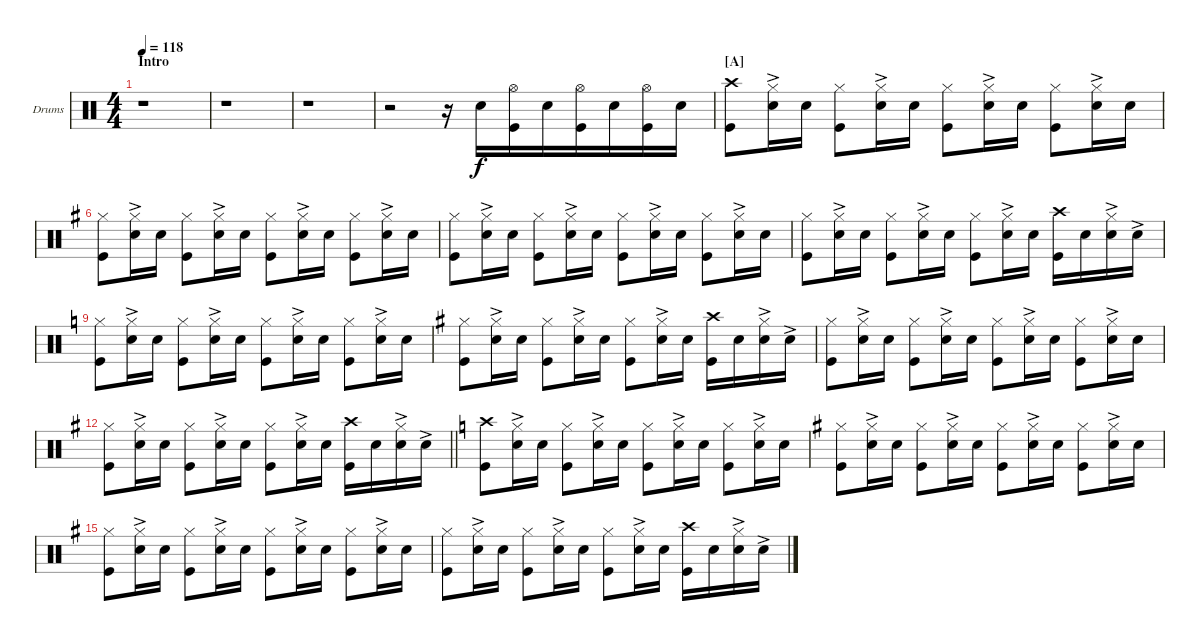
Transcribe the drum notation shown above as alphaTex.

\bracketExtendMode nobrackets
\firstSystemTrackNameOrientation horizontal
\otherSystemsTrackNameOrientation horizontal
\defaultBarNumberDisplay FirstOfSystem
\track ("Drumkit" "Drums") {instrument percussion}
\staff {score}
\articulation defaults
\ts (4 4)
\beaming (8 2 2 2 2)
\section ("" "Intro")
\tempo 118
\clef neutral
\scale
0.474178
\ks c
r.1{dy f} |
\scale
0.262911 r.1 |
\scale
0.262911 r.1 |
\scale
0.290155 r.2 r.16 "Snare (hit) 2".16 ("Kick (hit)" "Hi-Hat (open)").16{beam merge} "Snare (hit) 2".16{beam merge} ("Kick (hit)" "Hi-Hat (open)").16{beam merge} "Snare (hit) 2".16 ("Kick (hit)" "Hi-Hat (open)").16 "Snare (hit) 2".16 |
\section ("A" "")
\scale
0.489324
\scale
0.352332 ("Kick (hit)" "Crash high (hit)").8 ("Snare (hit) 2"{ac} "Hi-Hat (closed)").16 "Snare (hit) 2".16 ("Kick (hit)" "Hi-Hat (closed)").8 ("Snare (hit) 2"{ac} "Hi-Hat (closed)").16 "Snare (hit) 2".16 ("Kick (hit)" "Hi-Hat (closed)").8 ("Snare (hit) 2"{ac} "Hi-Hat (closed)").16 "Snare (hit) 2".16 ("Kick (hit)" "Hi-Hat (closed)").8 ("Snare (hit) 2"{ac} "Hi-Hat (closed)").16 "Snare (hit) 2".16 |
\scale
0.510053
\scale
0.357513
\ks g
("Kick (hit)" "Hi-Hat (closed)").8 ("Snare (hit) 2"{ac} "Hi-Hat (closed)").16 "Snare (hit) 2".16 ("Kick (hit)" "Hi-Hat (closed)").8 ("Snare (hit) 2"{ac} "Hi-Hat (closed)").16 "Snare (hit) 2".16 ("Kick (hit)" "Hi-Hat (closed)").8 ("Snare (hit) 2"{ac} "Hi-Hat (closed)").16 "Snare (hit) 2".16 ("Kick (hit)" "Hi-Hat (closed)").8 ("Snare (hit) 2"{ac} "Hi-Hat (closed)").16 "Snare (hit) 2".16 |
\scale
0.314607 ("Kick (hit)" "Hi-Hat (closed)").8 ("Snare (hit) 2"{ac} "Hi-Hat (closed)").16 "Snare (hit) 2".16 ("Kick (hit)" "Hi-Hat (closed)").8 ("Snare (hit) 2"{ac} "Hi-Hat (closed)").16 "Snare (hit) 2".16 ("Kick (hit)" "Hi-Hat (closed)").8 ("Snare (hit) 2"{ac} "Hi-Hat (closed)").16 "Snare (hit) 2".16 ("Kick (hit)" "Hi-Hat (closed)").8 ("Snare (hit) 2"{ac} "Hi-Hat (closed)").16 "Snare (hit) 2".16 |
\scale
0.314607 ("Kick (hit)" "Hi-Hat (closed)").8 ("Snare (hit) 2"{ac} "Hi-Hat (closed)").16 "Snare (hit) 2".16 ("Kick (hit)" "Hi-Hat (closed)").8 ("Snare (hit) 2"{ac} "Hi-Hat (closed)").16 "Snare (hit) 2".16 ("Kick (hit)" "Hi-Hat (closed)").8 ("Snare (hit) 2"{ac} "Hi-Hat (closed)").16 "Snare (hit) 2".16 ("Kick (hit)" "Crash high (hit)").16 "Snare (hit) 2".16 ("Snare (hit) 2"{ac} "Hi-Hat (closed)").16 "Snare (hit) 2"{ac}.16 |
\scale
0.370787
\ks c
("Kick (hit)" "Hi-Hat (closed)").8 ("Snare (hit) 2"{ac} "Hi-Hat (closed)").16 "Snare (hit) 2".16 ("Kick (hit)" "Hi-Hat (closed)").8 ("Snare (hit) 2"{ac} "Hi-Hat (closed)").16 "Snare (hit) 2".16 ("Kick (hit)" "Hi-Hat (closed)").8 ("Snare (hit) 2"{ac} "Hi-Hat (closed)").16 "Snare (hit) 2".16 ("Kick (hit)" "Hi-Hat (closed)").8 ("Snare (hit) 2"{ac} "Hi-Hat (closed)").16 "Snare (hit) 2".16 |
\scale
0.368984
\ks g
("Kick (hit)" "Hi-Hat (closed)").8 ("Snare (hit) 2"{ac} "Hi-Hat (closed)").16 "Snare (hit) 2".16 ("Kick (hit)" "Hi-Hat (closed)").8 ("Snare (hit) 2"{ac} "Hi-Hat (closed)").16 "Snare (hit) 2".16 ("Kick (hit)" "Hi-Hat (closed)").8 ("Snare (hit) 2"{ac} "Hi-Hat (closed)").16 "Snare (hit) 2".16 ("Kick (hit)" "Crash high (hit)").16 "Snare (hit) 2".16 ("Snare (hit) 2"{ac} "Hi-Hat (closed)").16 "Snare (hit) 2"{ac}.16 |
\scale
0.299465 ("Kick (hit)" "Hi-Hat (closed)").8 ("Snare (hit) 2"{ac} "Hi-Hat (closed)").16 "Snare (hit) 2".16 ("Kick (hit)" "Hi-Hat (closed)").8 ("Snare (hit) 2"{ac} "Hi-Hat (closed)").16 "Snare (hit) 2".16 ("Kick (hit)" "Hi-Hat (closed)").8 ("Snare (hit) 2"{ac} "Hi-Hat (closed)").16 "Snare (hit) 2".16 ("Kick (hit)" "Hi-Hat (closed)").8 ("Snare (hit) 2"{ac} "Hi-Hat (closed)").16 "Snare (hit) 2".16 |
\scale
0.331551
\barLineRight lightlight
("Kick (hit)" "Hi-Hat (closed)").8 ("Snare (hit) 2"{ac} "Hi-Hat (closed)").16 "Snare (hit) 2".16 ("Kick (hit)" "Hi-Hat (closed)").8 ("Snare (hit) 2"{ac} "Hi-Hat (closed)").16 "Snare (hit) 2".16 ("Kick (hit)" "Hi-Hat (closed)").8 ("Snare (hit) 2"{ac} "Hi-Hat (closed)").16 "Snare (hit) 2".16 ("Kick (hit)" "Crash high (hit)").16 "Snare (hit) 2".16 ("Snare (hit) 2"{ac} "Hi-Hat (closed)").16 "Snare (hit) 2"{ac}.16 |
\scale
0.489324
\ks c
("Kick (hit)" "Crash high (hit)").8 ("Snare (hit) 2"{ac} "Hi-Hat (closed)").16 "Snare (hit) 2".16 ("Kick (hit)" "Hi-Hat (closed)").8 ("Snare (hit) 2"{ac} "Hi-Hat (closed)").16 "Snare (hit) 2".16 ("Kick (hit)" "Hi-Hat (closed)").8 ("Snare (hit) 2"{ac} "Hi-Hat (closed)").16 "Snare (hit) 2".16 ("Kick (hit)" "Hi-Hat (closed)").8 ("Snare (hit) 2"{ac} "Hi-Hat (closed)").16 "Snare (hit) 2".16 |
\scale
0.510053
\ks g
("Kick (hit)" "Hi-Hat (closed)").8 ("Snare (hit) 2"{ac} "Hi-Hat (closed)").16 "Snare (hit) 2".16 ("Kick (hit)" "Hi-Hat (closed)").8 ("Snare (hit) 2"{ac} "Hi-Hat (closed)").16 "Snare (hit) 2".16 ("Kick (hit)" "Hi-Hat (closed)").8 ("Snare (hit) 2"{ac} "Hi-Hat (closed)").16 "Snare (hit) 2".16 ("Kick (hit)" "Hi-Hat (closed)").8 ("Snare (hit) 2"{ac} "Hi-Hat (closed)").16 "Snare (hit) 2".16 |
("Kick (hit)" "Hi-Hat (closed)").8 ("Snare (hit) 2"{ac} "Hi-Hat (closed)").16 "Snare (hit) 2".16 ("Kick (hit)" "Hi-Hat (closed)").8 ("Snare (hit) 2"{ac} "Hi-Hat (closed)").16 "Snare (hit) 2".16 ("Kick (hit)" "Hi-Hat (closed)").8 ("Snare (hit) 2"{ac} "Hi-Hat (closed)").16 "Snare (hit) 2".16 ("Kick (hit)" "Hi-Hat (closed)").8 ("Snare (hit) 2"{ac} "Hi-Hat (closed)").16 "Snare (hit) 2".16 |
("Kick (hit)" "Hi-Hat (closed)").8 ("Snare (hit) 2"{ac} "Hi-Hat (closed)").16 "Snare (hit) 2".16 ("Kick (hit)" "Hi-Hat (closed)").8 ("Snare (hit) 2"{ac} "Hi-Hat (closed)").16 "Snare (hit) 2".16 ("Kick (hit)" "Hi-Hat (closed)").8 ("Snare (hit) 2"{ac} "Hi-Hat (closed)").16 "Snare (hit) 2".16 ("Kick (hit)" "Crash high (hit)").16 "Snare (hit) 2".16 ("Snare (hit) 2"{ac} "Hi-Hat (closed)").16 "Snare (hit) 2"{ac}.16
